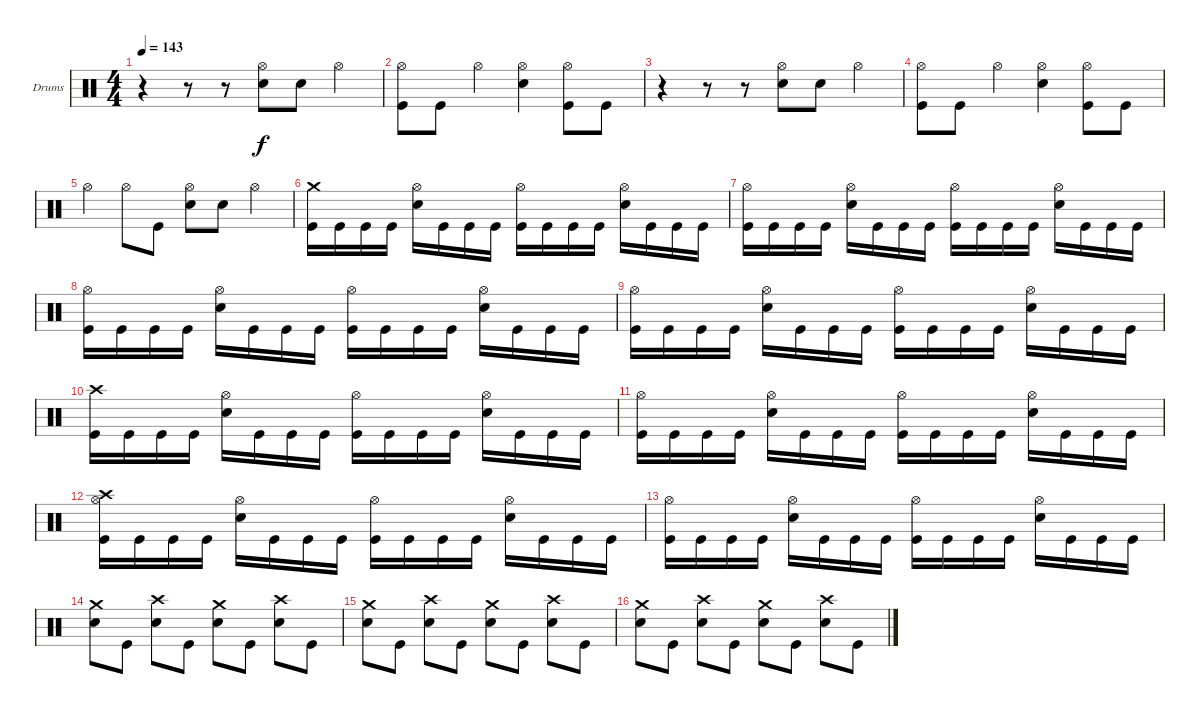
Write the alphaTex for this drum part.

\bracketExtendMode groupsimilarinstruments
\firstSystemTrackNameOrientation horizontal
\otherSystemsTrackNameOrientation horizontal
\track ("Drumkit" "Drums") {instrument percussion}
\staff {score}
\articulation defaults
\ts (4 4)
\tempo 143
\clef neutral
\ks c
r.4{dy f} r.8 r.8 ("Hi-Hat (open)" "Snare (hit) 2").8 "Snare (hit) 2".8 "Hi-Hat (open)".4 |
("Hi-Hat (open)" "Kick (hit)").8 "Kick (hit)".8 "Hi-Hat (open)".4 ("Hi-Hat (open)" "Snare (hit) 2").4 ("Hi-Hat (open)" "Kick (hit)").8 "Kick (hit)".8 |
r.4 r.8 r.8 ("Hi-Hat (open)" "Snare (hit) 2").8 "Snare (hit) 2".8 "Hi-Hat (open)".4 |
("Hi-Hat (open)" "Kick (hit)").8 "Kick (hit)".8 "Hi-Hat (open)".4 ("Hi-Hat (open)" "Snare (hit) 2").4 ("Hi-Hat (open)" "Kick (hit)").8 "Kick (hit)".8 |
"Hi-Hat (open)".4 "Hi-Hat (open)".8 "Kick (hit)".8 ("Hi-Hat (open)" "Snare (hit) 2").8 "Snare (hit) 2".8 "Hi-Hat (open)".4 |
("Crash medium (hit)" "Kick (hit)").16 "Kick (hit)".16 "Kick (hit)".16 "Kick (hit)".16 ("Hi-Hat (open)" "Snare (hit) 2").16 "Kick (hit)".16 "Kick (hit)".16 "Kick (hit)".16 ("Hi-Hat (open)" "Kick (hit)").16 "Kick (hit)".16 "Kick (hit)".16 "Kick (hit)".16 ("Hi-Hat (open)" "Snare (hit) 2").16 "Kick (hit)".16 "Kick (hit)".16 "Kick (hit)".16 |
("Hi-Hat (open)" "Kick (hit)").16 "Kick (hit)".16 "Kick (hit)".16 "Kick (hit)".16 ("Hi-Hat (open)" "Snare (hit) 2").16 "Kick (hit)".16 "Kick (hit)".16 "Kick (hit)".16 ("Hi-Hat (open)" "Kick (hit)").16 "Kick (hit)".16 "Kick (hit)".16 "Kick (hit)".16 ("Hi-Hat (open)" "Snare (hit) 2").16 "Kick (hit)".16 "Kick (hit)".16 "Kick (hit)".16 |
("Hi-Hat (open)" "Kick (hit)").16 "Kick (hit)".16 "Kick (hit)".16 "Kick (hit)".16 ("Hi-Hat (open)" "Snare (hit) 2").16 "Kick (hit)".16 "Kick (hit)".16 "Kick (hit)".16 ("Hi-Hat (open)" "Kick (hit)").16 "Kick (hit)".16 "Kick (hit)".16 "Kick (hit)".16 ("Hi-Hat (open)" "Snare (hit) 2").16 "Kick (hit)".16 "Kick (hit)".16 "Kick (hit)".16 |
("Hi-Hat (open)" "Kick (hit)").16 "Kick (hit)".16 "Kick (hit)".16 "Kick (hit)".16 ("Hi-Hat (open)" "Snare (hit) 2").16 "Kick (hit)".16 "Kick (hit)".16 "Kick (hit)".16 ("Hi-Hat (open)" "Kick (hit)").16 "Kick (hit)".16 "Kick (hit)".16 "Kick (hit)".16 ("Hi-Hat (open)" "Snare (hit) 2").16 "Kick (hit)".16 "Kick (hit)".16 "Kick (hit)".16 |
("Crash high (hit)" "Kick (hit)").16 "Kick (hit)".16 "Kick (hit)".16 "Kick (hit)".16 ("Hi-Hat (open)" "Snare (hit) 2").16 "Kick (hit)".16 "Kick (hit)".16 "Kick (hit)".16 ("Hi-Hat (open)" "Kick (hit)").16 "Kick (hit)".16 "Kick (hit)".16 "Kick (hit)".16 ("Hi-Hat (open)" "Snare (hit) 2").16 "Kick (hit)".16 "Kick (hit)".16 "Kick (hit)".16 |
("Hi-Hat (open)" "Kick (hit)").16 "Kick (hit)".16 "Kick (hit)".16 "Kick (hit)".16 ("Hi-Hat (open)" "Snare (hit) 2").16 "Kick (hit)".16 "Kick (hit)".16 "Kick (hit)".16 ("Hi-Hat (open)" "Kick (hit)").16 "Kick (hit)".16 "Kick (hit)".16 "Kick (hit)".16 ("Hi-Hat (open)" "Snare (hit) 2").16 "Kick (hit)".16 "Kick (hit)".16 "Kick (hit)".16 |
("Hi-Hat (open)" "Crash high (hit)" "Kick (hit)").16 "Kick (hit)".16 "Kick (hit)".16 "Kick (hit)".16 ("Hi-Hat (open)" "Snare (hit) 2").16 "Kick (hit)".16 "Kick (hit)".16 "Kick (hit)".16 ("Hi-Hat (open)" "Kick (hit)").16 "Kick (hit)".16 "Kick (hit)".16 "Kick (hit)".16 ("Hi-Hat (open)" "Snare (hit) 2").16 "Kick (hit)".16 "Kick (hit)".16 "Kick (hit)".16 |
("Hi-Hat (open)" "Kick (hit)").16 "Kick (hit)".16 "Kick (hit)".16 "Kick (hit)".16 ("Hi-Hat (open)" "Snare (hit) 2").16 "Kick (hit)".16 "Kick (hit)".16 "Kick (hit)".16 ("Hi-Hat (open)" "Kick (hit)").16 "Kick (hit)".16 "Kick (hit)".16 "Kick (hit)".16 ("Hi-Hat (open)" "Snare (hit) 2").16 "Kick (hit)".16 "Kick (hit)".16 "Kick (hit)".16 |
("Crash medium (hit)" "Snare (hit) 2").8 "Kick (hit)".8 ("Crash high (hit)" "Snare (hit) 2").8 "Kick (hit)".8 ("Crash medium (hit)" "Snare (hit) 2").8 "Kick (hit)".8 ("Crash high (hit)" "Snare (hit) 2").8 "Kick (hit)".8 |
("Crash medium (hit)" "Snare (hit) 2").8 "Kick (hit)".8 ("Crash high (hit)" "Snare (hit) 2").8 "Kick (hit)".8 ("Crash medium (hit)" "Snare (hit) 2").8 "Kick (hit)".8 ("Crash high (hit)" "Snare (hit) 2").8 "Kick (hit)".8 |
("Crash medium (hit)" "Snare (hit) 2").8 "Kick (hit)".8 ("Crash high (hit)" "Snare (hit) 2").8 "Kick (hit)".8 ("Crash medium (hit)" "Snare (hit) 2").8 "Kick (hit)".8 ("Crash high (hit)" "Snare (hit) 2").8 "Kick (hit)".8
